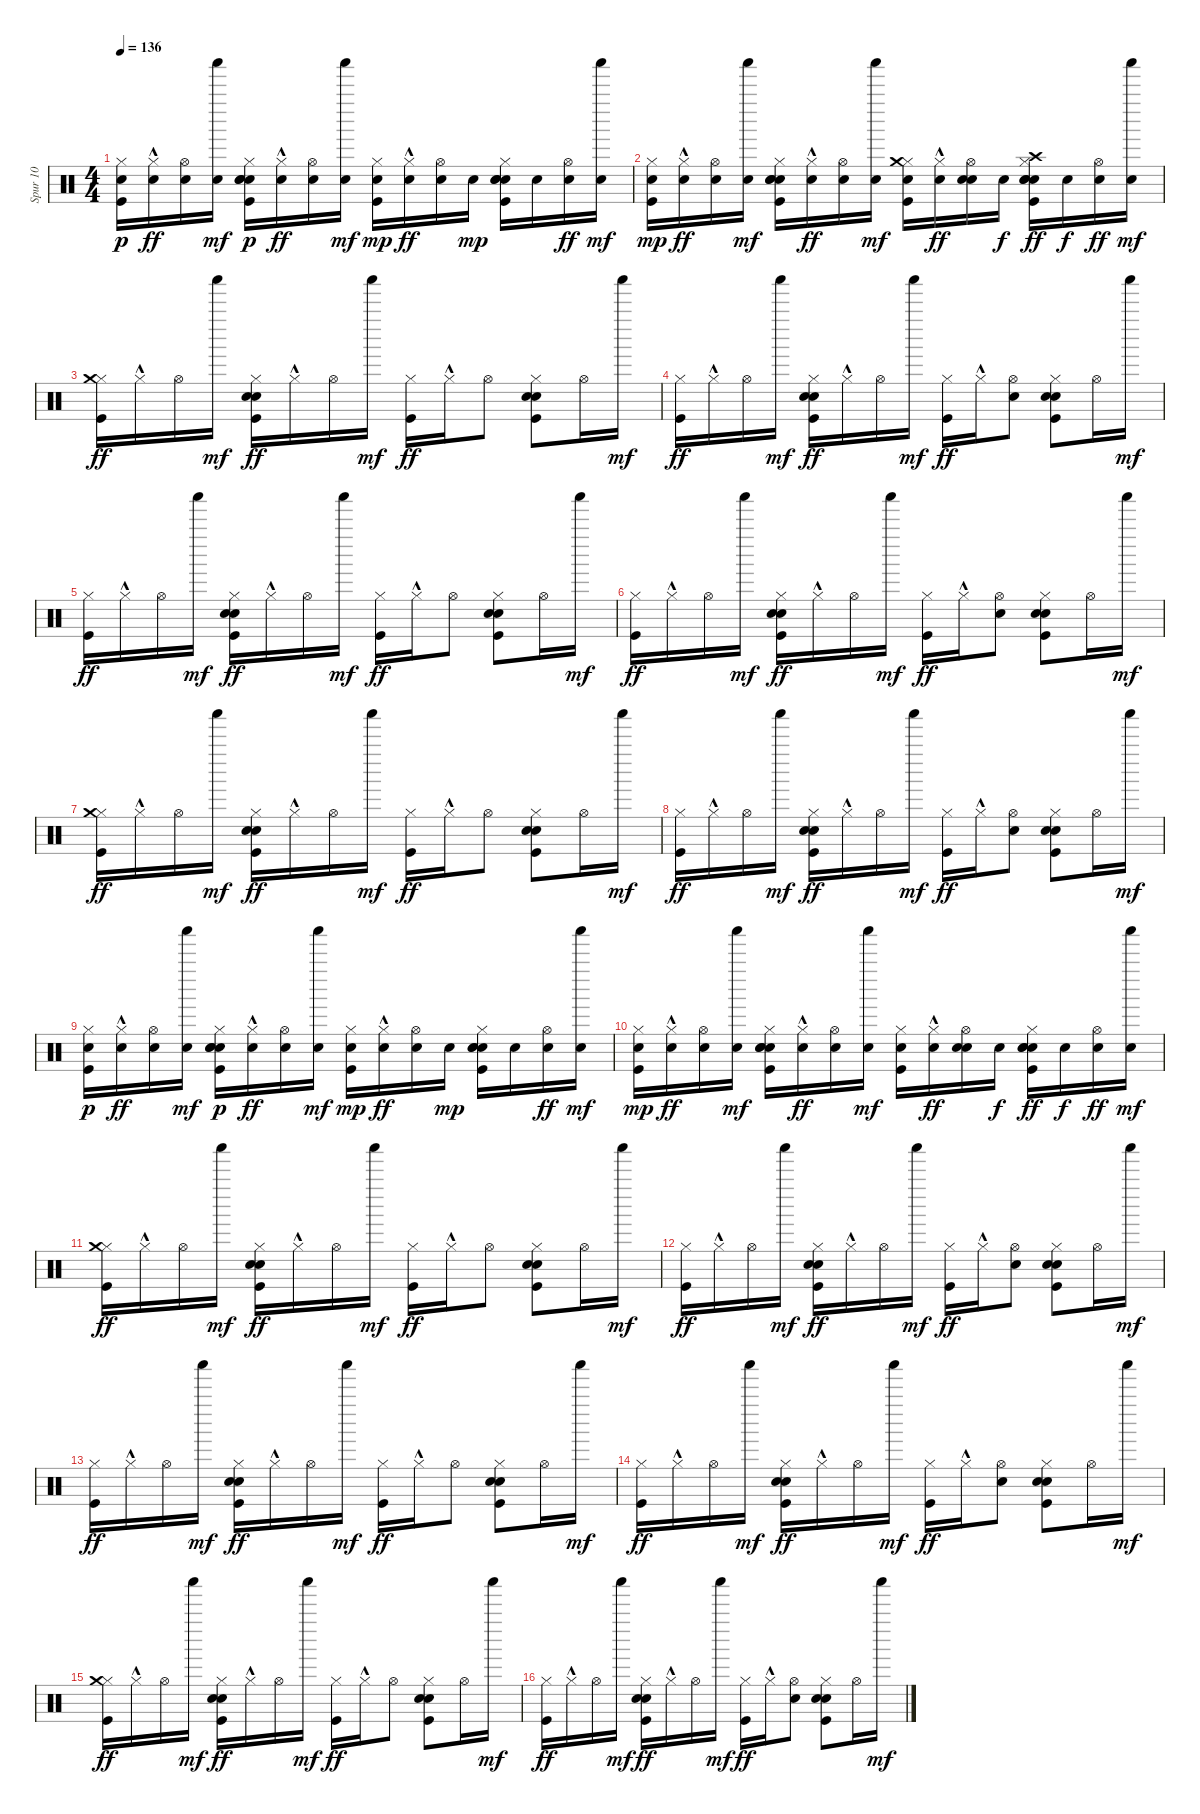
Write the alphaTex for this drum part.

\track ("Spur 10" "Spur 10") {instrument percussion}
\staff {score}
\articulation defaults
\ts (4 4)
\tempo 136
\clef neutral
\ks c
("Kick (hit)" "Snare (hit) 2" "Hi-Hat (closed)").16{dy p} ("Snare (hit) 2" "Hi-Hat (closed)"{hac}).16{dy ff} ("Snare (hit) 2" "Hi-Hat (open)").16 ("Snare (hit) 2" "Shaker (hit)").16{dy mf} ("Kick (hit)" "Electric Snare (hit)" "Snare (hit) 2" "Hi-Hat (closed)" "Hand Clap (hit)").16{dy p} ("Snare (hit) 2" "Hi-Hat (closed)"{hac}).16{dy ff} ("Snare (hit) 2" "Hi-Hat (open)").16 ("Snare (hit) 2" "Shaker (hit)").16{dy mf} ("Kick (hit)" "Snare (hit) 2" "Hi-Hat (closed)").16{dy mp} ("Snare (hit) 2" "Hi-Hat (closed)"{hac}).16{dy ff} ("Snare (hit) 2" "Hi-Hat (open)").16 "Snare (hit) 2".16{dy mp} ("Kick (hit)" "Electric Snare (hit)" "Snare (hit) 2" "Hi-Hat (closed)" "Hand Clap (hit)").16 "Snare (hit) 2".16 ("Snare (hit) 2" "Hi-Hat (open)").16{dy ff} ("Snare (hit) 2" "Shaker (hit)").16{dy mf} |
("Kick (hit)" "Snare (hit) 2" "Hi-Hat (closed)").16{dy mp} ("Snare (hit) 2" "Hi-Hat (closed)"{hac}).16{dy ff} ("Snare (hit) 2" "Hi-Hat (open)").16 ("Snare (hit) 2" "Shaker (hit)").16{dy mf} ("Kick (hit)" "Electric Snare (hit)" "Snare (hit) 2" "Hi-Hat (closed)" "Hand Clap (hit)").16 ("Snare (hit) 2" "Hi-Hat (closed)"{hac}).16{dy ff} ("Snare (hit) 2" "Hi-Hat (open)").16 ("Snare (hit) 2" "Shaker (hit)").16{dy mf} ("Kick (hit)" "Snare (hit) 2" "Hi-Hat (closed)" "Crash medium (hit)").16 ("Snare (hit) 2" "Hi-Hat (closed)"{hac}).16{dy ff} ("Snare (hit) 2" "Hi-Hat (open)" "Hand Clap (hit)").16 "Snare (hit) 2".16{dy f} ("Kick (hit)" "Electric Snare (hit)" "Snare (hit) 2" "Hi-Hat (closed)" "Crash high (hit)" "Hand Clap (hit)").16{dy ff} "Snare (hit) 2".16{dy f} ("Snare (hit) 2" "Hi-Hat (open)").16{dy ff} ("Snare (hit) 2" "Shaker (hit)").16{dy mf} |
("Kick (hit)" "Hi-Hat (closed)" "Crash medium (hit)").16{dy ff} "Hi-Hat (closed)"{hac}.16 "Hi-Hat (open)".16 "Shaker (hit)".16{dy mf} ("Kick (hit)" "Electric Snare (hit)" "Hi-Hat (closed)" "Hand Clap (hit)").16{dy ff} "Hi-Hat (closed)"{hac}.16 "Hi-Hat (open)".16 "Shaker (hit)".16{dy mf} ("Kick (hit)" "Hi-Hat (closed)").16{dy ff} "Hi-Hat (closed)"{hac}.16 "Hi-Hat (open)".8 ("Kick (hit)" "Electric Snare (hit)" "Hi-Hat (closed)" "Hand Clap (hit)").8 "Hi-Hat (open)".16 "Shaker (hit)".16{dy mf} |
("Kick (hit)" "Hi-Hat (closed)").16{dy ff} "Hi-Hat (closed)"{hac}.16 "Hi-Hat (open)".16 "Shaker (hit)".16{dy mf} ("Kick (hit)" "Electric Snare (hit)" "Hi-Hat (closed)" "Hand Clap (hit)").16{dy ff} "Hi-Hat (closed)"{hac}.16 "Hi-Hat (open)".16 "Shaker (hit)".16{dy mf} ("Kick (hit)" "Hi-Hat (closed)").16{dy ff} "Hi-Hat (closed)"{hac}.16 ("Hi-Hat (open)" "Hand Clap (hit)").8 ("Kick (hit)" "Electric Snare (hit)" "Hi-Hat (closed)" "Hand Clap (hit)").8 "Hi-Hat (open)".16 "Shaker (hit)".16{dy mf} |
("Kick (hit)" "Hi-Hat (closed)").16{dy ff} "Hi-Hat (closed)"{hac}.16 "Hi-Hat (open)".16 "Shaker (hit)".16{dy mf} ("Kick (hit)" "Electric Snare (hit)" "Hi-Hat (closed)" "Hand Clap (hit)").16{dy ff} "Hi-Hat (closed)"{hac}.16 "Hi-Hat (open)".16 "Shaker (hit)".16{dy mf} ("Kick (hit)" "Hi-Hat (closed)").16{dy ff} "Hi-Hat (closed)"{hac}.16 "Hi-Hat (open)".8 ("Kick (hit)" "Electric Snare (hit)" "Hi-Hat (closed)" "Hand Clap (hit)").8 "Hi-Hat (open)".16 "Shaker (hit)".16{dy mf} |
("Kick (hit)" "Hi-Hat (closed)").16{dy ff} "Hi-Hat (closed)"{hac}.16 "Hi-Hat (open)".16 "Shaker (hit)".16{dy mf} ("Kick (hit)" "Electric Snare (hit)" "Hi-Hat (closed)" "Hand Clap (hit)").16{dy ff} "Hi-Hat (closed)"{hac}.16 "Hi-Hat (open)".16 "Shaker (hit)".16{dy mf} ("Kick (hit)" "Hi-Hat (closed)").16{dy ff} "Hi-Hat (closed)"{hac}.16 ("Hi-Hat (open)" "Hand Clap (hit)").8 ("Kick (hit)" "Electric Snare (hit)" "Hi-Hat (closed)" "Hand Clap (hit)").8 "Hi-Hat (open)".16 "Shaker (hit)".16{dy mf} |
("Kick (hit)" "Hi-Hat (closed)" "Crash medium (hit)").16{dy ff} "Hi-Hat (closed)"{hac}.16 "Hi-Hat (open)".16 "Shaker (hit)".16{dy mf} ("Kick (hit)" "Electric Snare (hit)" "Hi-Hat (closed)" "Hand Clap (hit)").16{dy ff} "Hi-Hat (closed)"{hac}.16 "Hi-Hat (open)".16 "Shaker (hit)".16{dy mf} ("Kick (hit)" "Hi-Hat (closed)").16{dy ff} "Hi-Hat (closed)"{hac}.16 "Hi-Hat (open)".8 ("Kick (hit)" "Electric Snare (hit)" "Hi-Hat (closed)" "Hand Clap (hit)").8 "Hi-Hat (open)".16 "Shaker (hit)".16{dy mf} |
("Kick (hit)" "Hi-Hat (closed)").16{dy ff} "Hi-Hat (closed)"{hac}.16 "Hi-Hat (open)".16 "Shaker (hit)".16{dy mf} ("Kick (hit)" "Electric Snare (hit)" "Hi-Hat (closed)" "Hand Clap (hit)").16{dy ff} "Hi-Hat (closed)"{hac}.16 "Hi-Hat (open)".16 "Shaker (hit)".16{dy mf} ("Kick (hit)" "Hi-Hat (closed)").16{dy ff} "Hi-Hat (closed)"{hac}.16 ("Hi-Hat (open)" "Hand Clap (hit)").8 ("Kick (hit)" "Electric Snare (hit)" "Hi-Hat (closed)" "Hand Clap (hit)").8 "Hi-Hat (open)".16 "Shaker (hit)".16{dy mf} |
("Kick (hit)" "Snare (hit) 2" "Hi-Hat (closed)").16{dy p} ("Snare (hit) 2" "Hi-Hat (closed)"{hac}).16{dy ff} ("Snare (hit) 2" "Hi-Hat (open)").16 ("Snare (hit) 2" "Shaker (hit)").16{dy mf} ("Kick (hit)" "Electric Snare (hit)" "Snare (hit) 2" "Hi-Hat (closed)" "Hand Clap (hit)").16{dy p} ("Snare (hit) 2" "Hi-Hat (closed)"{hac}).16{dy ff} ("Snare (hit) 2" "Hi-Hat (open)").16 ("Snare (hit) 2" "Shaker (hit)").16{dy mf} ("Kick (hit)" "Snare (hit) 2" "Hi-Hat (closed)").16{dy mp} ("Snare (hit) 2" "Hi-Hat (closed)"{hac}).16{dy ff} ("Snare (hit) 2" "Hi-Hat (open)").16 "Snare (hit) 2".16{dy mp} ("Kick (hit)" "Electric Snare (hit)" "Snare (hit) 2" "Hi-Hat (closed)" "Hand Clap (hit)").16 "Snare (hit) 2".16 ("Snare (hit) 2" "Hi-Hat (open)").16{dy ff} ("Snare (hit) 2" "Shaker (hit)").16{dy mf} |
("Kick (hit)" "Snare (hit) 2" "Hi-Hat (closed)").16{dy mp} ("Snare (hit) 2" "Hi-Hat (closed)"{hac}).16{dy ff} ("Snare (hit) 2" "Hi-Hat (open)").16 ("Snare (hit) 2" "Shaker (hit)").16{dy mf} ("Kick (hit)" "Electric Snare (hit)" "Snare (hit) 2" "Hi-Hat (closed)" "Hand Clap (hit)").16 ("Snare (hit) 2" "Hi-Hat (closed)"{hac}).16{dy ff} ("Snare (hit) 2" "Hi-Hat (open)").16 ("Snare (hit) 2" "Shaker (hit)").16{dy mf} ("Kick (hit)" "Snare (hit) 2" "Hi-Hat (closed)").16 ("Snare (hit) 2" "Hi-Hat (closed)"{hac}).16{dy ff} ("Snare (hit) 2" "Hi-Hat (open)" "Hand Clap (hit)").16 "Snare (hit) 2".16{dy f} ("Kick (hit)" "Electric Snare (hit)" "Snare (hit) 2" "Hi-Hat (closed)" "Hand Clap (hit)").16{dy ff} "Snare (hit) 2".16{dy f} ("Snare (hit) 2" "Hi-Hat (open)").16{dy ff} ("Snare (hit) 2" "Shaker (hit)").16{dy mf} |
("Kick (hit)" "Hi-Hat (closed)" "Crash medium (hit)").16{dy ff} "Hi-Hat (closed)"{hac}.16 "Hi-Hat (open)".16 "Shaker (hit)".16{dy mf} ("Kick (hit)" "Electric Snare (hit)" "Hi-Hat (closed)" "Hand Clap (hit)").16{dy ff} "Hi-Hat (closed)"{hac}.16 "Hi-Hat (open)".16 "Shaker (hit)".16{dy mf} ("Kick (hit)" "Hi-Hat (closed)").16{dy ff} "Hi-Hat (closed)"{hac}.16 "Hi-Hat (open)".8 ("Kick (hit)" "Electric Snare (hit)" "Hi-Hat (closed)" "Hand Clap (hit)").8 "Hi-Hat (open)".16 "Shaker (hit)".16{dy mf} |
("Kick (hit)" "Hi-Hat (closed)").16{dy ff} "Hi-Hat (closed)"{hac}.16 "Hi-Hat (open)".16 "Shaker (hit)".16{dy mf} ("Kick (hit)" "Electric Snare (hit)" "Hi-Hat (closed)" "Hand Clap (hit)").16{dy ff} "Hi-Hat (closed)"{hac}.16 "Hi-Hat (open)".16 "Shaker (hit)".16{dy mf} ("Kick (hit)" "Hi-Hat (closed)").16{dy ff} "Hi-Hat (closed)"{hac}.16 ("Hi-Hat (open)" "Hand Clap (hit)").8 ("Kick (hit)" "Electric Snare (hit)" "Hi-Hat (closed)" "Hand Clap (hit)").8 "Hi-Hat (open)".16 "Shaker (hit)".16{dy mf} |
("Kick (hit)" "Hi-Hat (closed)").16{dy ff} "Hi-Hat (closed)"{hac}.16 "Hi-Hat (open)".16 "Shaker (hit)".16{dy mf} ("Kick (hit)" "Electric Snare (hit)" "Hi-Hat (closed)" "Hand Clap (hit)").16{dy ff} "Hi-Hat (closed)"{hac}.16 "Hi-Hat (open)".16 "Shaker (hit)".16{dy mf} ("Kick (hit)" "Hi-Hat (closed)").16{dy ff} "Hi-Hat (closed)"{hac}.16 "Hi-Hat (open)".8 ("Kick (hit)" "Electric Snare (hit)" "Hi-Hat (closed)" "Hand Clap (hit)").8 "Hi-Hat (open)".16 "Shaker (hit)".16{dy mf} |
("Kick (hit)" "Hi-Hat (closed)").16{dy ff} "Hi-Hat (closed)"{hac}.16 "Hi-Hat (open)".16 "Shaker (hit)".16{dy mf} ("Kick (hit)" "Electric Snare (hit)" "Hi-Hat (closed)" "Hand Clap (hit)").16{dy ff} "Hi-Hat (closed)"{hac}.16 "Hi-Hat (open)".16 "Shaker (hit)".16{dy mf} ("Kick (hit)" "Hi-Hat (closed)").16{dy ff} "Hi-Hat (closed)"{hac}.16 ("Hi-Hat (open)" "Hand Clap (hit)").8 ("Kick (hit)" "Electric Snare (hit)" "Hi-Hat (closed)" "Hand Clap (hit)").8 "Hi-Hat (open)".16 "Shaker (hit)".16{dy mf} |
("Kick (hit)" "Hi-Hat (closed)" "Crash medium (hit)").16{dy ff} "Hi-Hat (closed)"{hac}.16 "Hi-Hat (open)".16 "Shaker (hit)".16{dy mf} ("Kick (hit)" "Electric Snare (hit)" "Hi-Hat (closed)" "Hand Clap (hit)").16{dy ff} "Hi-Hat (closed)"{hac}.16 "Hi-Hat (open)".16 "Shaker (hit)".16{dy mf} ("Kick (hit)" "Hi-Hat (closed)").16{dy ff} "Hi-Hat (closed)"{hac}.16 "Hi-Hat (open)".8 ("Kick (hit)" "Electric Snare (hit)" "Hi-Hat (closed)" "Hand Clap (hit)").8 "Hi-Hat (open)".16 "Shaker (hit)".16{dy mf} |
("Kick (hit)" "Hi-Hat (closed)").16{dy ff} "Hi-Hat (closed)"{hac}.16 "Hi-Hat (open)".16 "Shaker (hit)".16{dy mf} ("Kick (hit)" "Electric Snare (hit)" "Hi-Hat (closed)" "Hand Clap (hit)").16{dy ff} "Hi-Hat (closed)"{hac}.16 "Hi-Hat (open)".16 "Shaker (hit)".16{dy mf} ("Kick (hit)" "Hi-Hat (closed)").16{dy ff} "Hi-Hat (closed)"{hac}.16 ("Hi-Hat (open)" "Hand Clap (hit)").8 ("Kick (hit)" "Electric Snare (hit)" "Hi-Hat (closed)" "Hand Clap (hit)").8 "Hi-Hat (open)".16 "Shaker (hit)".16{dy mf}
